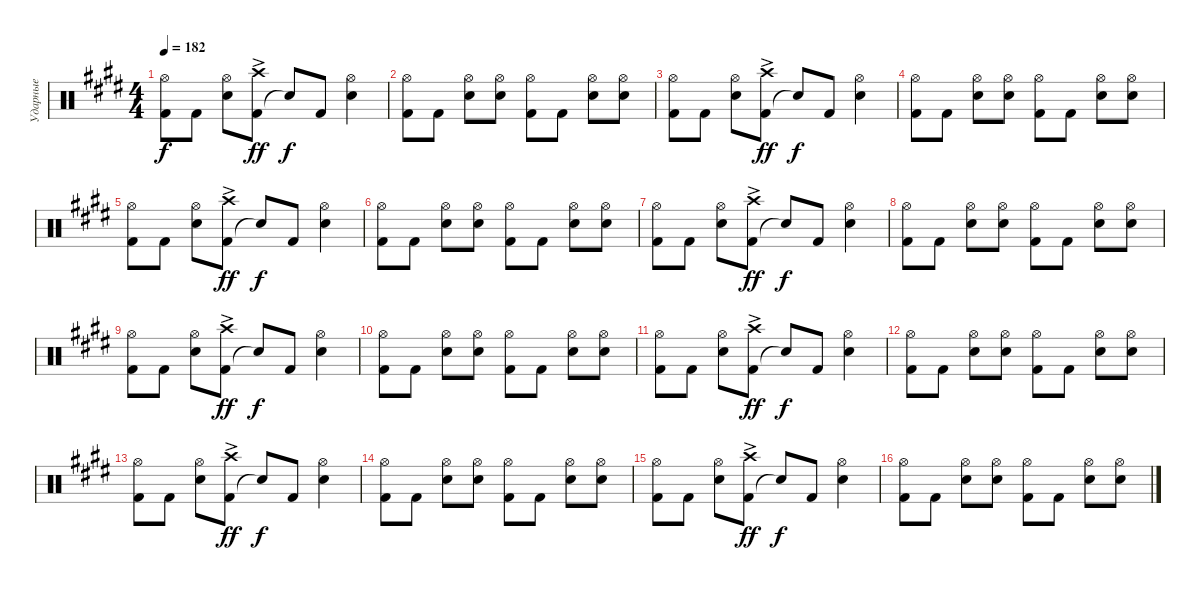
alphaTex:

\track ("Ударные" "Ударные") {instrument percussion}
\staff {score}
\articulation defaults
\ts (4 4)
\tempo 182
\clef neutral
\ks e
("Kick (hit) 2" "Hi-Hat (open)").8{dy f} "Kick (hit) 2".8 ("Snare (hit) 2" "Hi-Hat (open)").8 ("Kick (hit) 2" "Crash high (hit)"{ac}).8{dy ff} "Snare (hit)"{t}.8{dy f} "Kick (hit) 2".8 ("Snare (hit) 2" "Hi-Hat (open)").4 |
("Kick (hit) 2" "Hi-Hat (open)").8 "Kick (hit) 2".8 ("Snare (hit) 2" "Hi-Hat (open)").8 ("Snare (hit) 2" "Hi-Hat (open)").8 ("Kick (hit) 2" "Hi-Hat (open)").8 "Kick (hit) 2".8 ("Snare (hit) 2" "Hi-Hat (open)").8 ("Snare (hit) 2" "Hi-Hat (open)").8 |
("Kick (hit) 2" "Hi-Hat (open)").8 "Kick (hit) 2".8 ("Snare (hit) 2" "Hi-Hat (open)").8 ("Kick (hit) 2" "Crash high (hit)"{ac}).8{dy ff} "Snare (hit)"{t}.8{dy f} "Kick (hit) 2".8 ("Snare (hit) 2" "Hi-Hat (open)").4 |
("Kick (hit) 2" "Hi-Hat (open)").8 "Kick (hit) 2".8 ("Snare (hit) 2" "Hi-Hat (open)").8 ("Snare (hit) 2" "Hi-Hat (open)").8 ("Kick (hit) 2" "Hi-Hat (open)").8 "Kick (hit) 2".8 ("Snare (hit) 2" "Hi-Hat (open)").8 ("Snare (hit) 2" "Hi-Hat (open)").8 |
("Kick (hit) 2" "Hi-Hat (open)").8 "Kick (hit) 2".8 ("Snare (hit) 2" "Hi-Hat (open)").8 ("Kick (hit) 2" "Crash high (hit)"{ac}).8{dy ff} "Snare (hit)"{t}.8{dy f} "Kick (hit) 2".8 ("Snare (hit) 2" "Hi-Hat (open)").4 |
("Kick (hit) 2" "Hi-Hat (open)").8 "Kick (hit) 2".8 ("Snare (hit) 2" "Hi-Hat (open)").8 ("Snare (hit) 2" "Hi-Hat (open)").8 ("Kick (hit) 2" "Hi-Hat (open)").8 "Kick (hit) 2".8 ("Snare (hit) 2" "Hi-Hat (open)").8 ("Snare (hit) 2" "Hi-Hat (open)").8 |
("Kick (hit) 2" "Hi-Hat (open)").8 "Kick (hit) 2".8 ("Snare (hit) 2" "Hi-Hat (open)").8 ("Kick (hit) 2" "Crash high (hit)"{ac}).8{dy ff} "Snare (hit)"{t}.8{dy f} "Kick (hit) 2".8 ("Snare (hit) 2" "Hi-Hat (open)").4 |
("Kick (hit) 2" "Hi-Hat (open)").8 "Kick (hit) 2".8 ("Snare (hit) 2" "Hi-Hat (open)").8 ("Snare (hit) 2" "Hi-Hat (open)").8 ("Kick (hit) 2" "Hi-Hat (open)").8 "Kick (hit) 2".8 ("Snare (hit) 2" "Hi-Hat (open)").8 ("Snare (hit) 2" "Hi-Hat (open)").8 |
("Kick (hit) 2" "Hi-Hat (open)").8 "Kick (hit) 2".8 ("Snare (hit) 2" "Hi-Hat (open)").8 ("Kick (hit) 2" "Crash high (hit)"{ac}).8{dy ff} "Snare (hit)"{t}.8{dy f} "Kick (hit) 2".8 ("Snare (hit) 2" "Hi-Hat (open)").4 |
("Kick (hit) 2" "Hi-Hat (open)").8 "Kick (hit) 2".8 ("Snare (hit) 2" "Hi-Hat (open)").8 ("Snare (hit) 2" "Hi-Hat (open)").8 ("Kick (hit) 2" "Hi-Hat (open)").8 "Kick (hit) 2".8 ("Snare (hit) 2" "Hi-Hat (open)").8 ("Snare (hit) 2" "Hi-Hat (open)").8 |
("Kick (hit) 2" "Hi-Hat (open)").8 "Kick (hit) 2".8 ("Snare (hit) 2" "Hi-Hat (open)").8 ("Kick (hit) 2" "Crash high (hit)"{ac}).8{dy ff} "Snare (hit)"{t}.8{dy f} "Kick (hit) 2".8 ("Snare (hit) 2" "Hi-Hat (open)").4 |
("Kick (hit) 2" "Hi-Hat (open)").8 "Kick (hit) 2".8 ("Snare (hit) 2" "Hi-Hat (open)").8 ("Snare (hit) 2" "Hi-Hat (open)").8 ("Kick (hit) 2" "Hi-Hat (open)").8 "Kick (hit) 2".8 ("Snare (hit) 2" "Hi-Hat (open)").8 ("Snare (hit) 2" "Hi-Hat (open)").8 |
("Kick (hit) 2" "Hi-Hat (open)").8 "Kick (hit) 2".8 ("Snare (hit) 2" "Hi-Hat (open)").8 ("Kick (hit) 2" "Crash high (hit)"{ac}).8{dy ff} "Snare (hit)"{t}.8{dy f} "Kick (hit) 2".8 ("Snare (hit) 2" "Hi-Hat (open)").4 |
("Kick (hit) 2" "Hi-Hat (open)").8 "Kick (hit) 2".8 ("Snare (hit) 2" "Hi-Hat (open)").8 ("Snare (hit) 2" "Hi-Hat (open)").8 ("Kick (hit) 2" "Hi-Hat (open)").8 "Kick (hit) 2".8 ("Snare (hit) 2" "Hi-Hat (open)").8 ("Snare (hit) 2" "Hi-Hat (open)").8 |
("Kick (hit) 2" "Hi-Hat (open)").8 "Kick (hit) 2".8 ("Snare (hit) 2" "Hi-Hat (open)").8 ("Kick (hit) 2" "Crash high (hit)"{ac}).8{dy ff} "Snare (hit)"{t}.8{dy f} "Kick (hit) 2".8 ("Snare (hit) 2" "Hi-Hat (open)").4 |
("Kick (hit) 2" "Hi-Hat (open)").8 "Kick (hit) 2".8 ("Snare (hit) 2" "Hi-Hat (open)").8 ("Snare (hit) 2" "Hi-Hat (open)").8 ("Kick (hit) 2" "Hi-Hat (open)").8 "Kick (hit) 2".8 ("Snare (hit) 2" "Hi-Hat (open)").8 ("Snare (hit) 2" "Hi-Hat (open)").8
